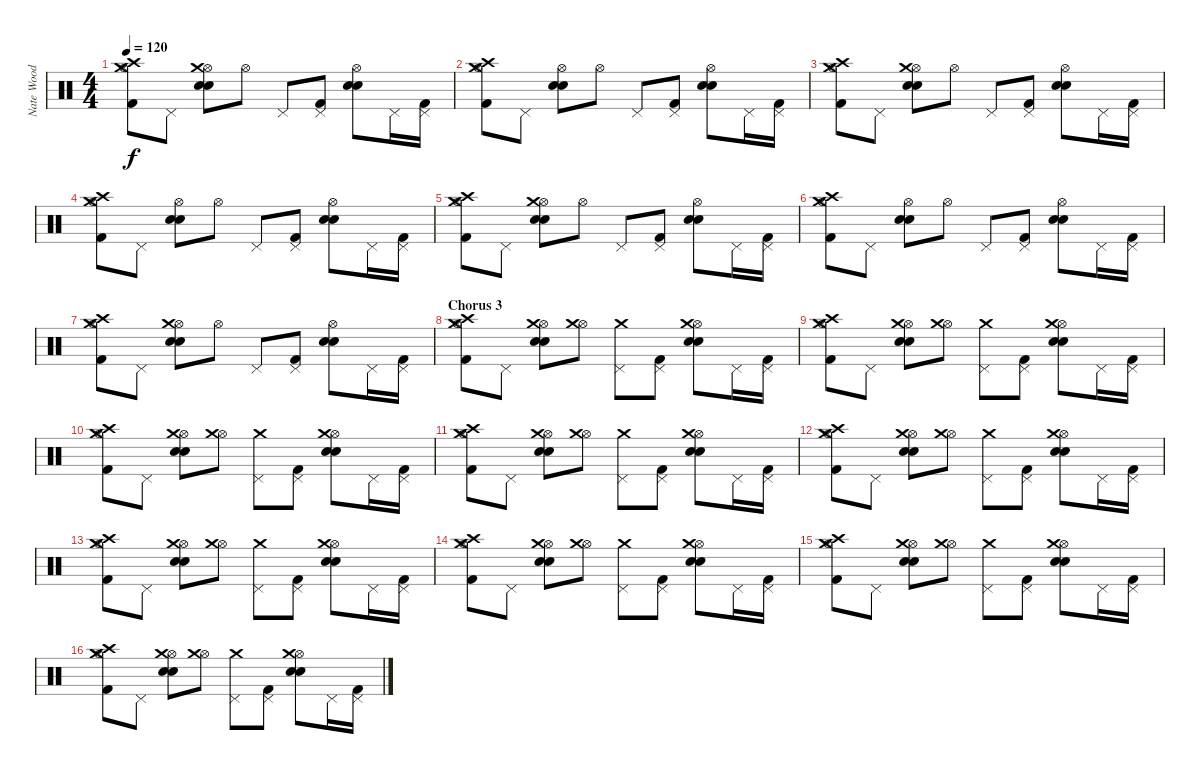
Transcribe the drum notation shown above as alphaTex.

\track ("Nate Wood  (Drums)" "Nate Wood ") {instrument percussion}
\staff {score}
\articulation defaults
\ts (4 4)
\tempo 120
\clef neutral
\ks c
("Kick (hit) 2" "Hi-Hat (open)" "Crash medium (hit)" "Crash high (hit)").8{dy f} "Pedal Hi-Hat (hit)".8 ("Snare (hit) 2" "Electric Snare (hit)" "Hi-Hat (open)" "Crash medium (hit)").8 "Hi-Hat (open)".8 "Pedal Hi-Hat (hit)".8 ("Kick (hit) 2" "Pedal Hi-Hat (hit)").8 ("Snare (hit) 2" "Electric Snare (hit)" "Hi-Hat (open)").8 "Pedal Hi-Hat (hit)".16 ("Kick (hit) 2" "Pedal Hi-Hat (hit)").16 |
("Kick (hit) 2" "Hi-Hat (open)" "Crash medium (hit)" "Crash high (hit)").8 "Pedal Hi-Hat (hit)".8 ("Snare (hit) 2" "Electric Snare (hit)" "Hi-Hat (open)").8 "Hi-Hat (open)".8 "Pedal Hi-Hat (hit)".8 ("Kick (hit) 2" "Pedal Hi-Hat (hit)").8 ("Snare (hit) 2" "Electric Snare (hit)" "Hi-Hat (open)").8 "Pedal Hi-Hat (hit)".16 ("Kick (hit) 2" "Pedal Hi-Hat (hit)").16 |
("Kick (hit) 2" "Hi-Hat (open)" "Crash medium (hit)" "Crash high (hit)").8 "Pedal Hi-Hat (hit)".8 ("Snare (hit) 2" "Electric Snare (hit)" "Hi-Hat (open)" "Crash medium (hit)").8 "Hi-Hat (open)".8 "Pedal Hi-Hat (hit)".8 ("Kick (hit) 2" "Pedal Hi-Hat (hit)").8 ("Snare (hit) 2" "Electric Snare (hit)" "Hi-Hat (open)").8 "Pedal Hi-Hat (hit)".16 ("Kick (hit) 2" "Pedal Hi-Hat (hit)").16 |
("Kick (hit) 2" "Hi-Hat (open)" "Crash medium (hit)" "Crash high (hit)").8 "Pedal Hi-Hat (hit)".8 ("Snare (hit) 2" "Electric Snare (hit)" "Hi-Hat (open)").8 "Hi-Hat (open)".8 "Pedal Hi-Hat (hit)".8 ("Kick (hit) 2" "Pedal Hi-Hat (hit)").8 ("Snare (hit) 2" "Electric Snare (hit)" "Hi-Hat (open)").8 "Pedal Hi-Hat (hit)".16 ("Kick (hit) 2" "Pedal Hi-Hat (hit)").16 |
("Kick (hit) 2" "Hi-Hat (open)" "Crash medium (hit)" "Crash high (hit)").8 "Pedal Hi-Hat (hit)".8 ("Snare (hit) 2" "Electric Snare (hit)" "Hi-Hat (open)" "Crash medium (hit)").8 "Hi-Hat (open)".8 "Pedal Hi-Hat (hit)".8 ("Kick (hit) 2" "Pedal Hi-Hat (hit)").8 ("Snare (hit) 2" "Electric Snare (hit)" "Hi-Hat (open)").8 "Pedal Hi-Hat (hit)".16 ("Kick (hit) 2" "Pedal Hi-Hat (hit)").16 |
("Kick (hit) 2" "Hi-Hat (open)" "Crash medium (hit)" "Crash high (hit)").8 "Pedal Hi-Hat (hit)".8 ("Snare (hit) 2" "Electric Snare (hit)" "Hi-Hat (open)").8 "Hi-Hat (open)".8 "Pedal Hi-Hat (hit)".8 ("Kick (hit) 2" "Pedal Hi-Hat (hit)").8 ("Snare (hit) 2" "Electric Snare (hit)" "Hi-Hat (open)").8 "Pedal Hi-Hat (hit)".16 ("Kick (hit) 2" "Pedal Hi-Hat (hit)").16 |
("Kick (hit) 2" "Hi-Hat (open)" "Crash medium (hit)" "Crash high (hit)").8 "Pedal Hi-Hat (hit)".8 ("Snare (hit) 2" "Electric Snare (hit)" "Hi-Hat (open)" "Crash medium (hit)").8 "Hi-Hat (open)".8 "Pedal Hi-Hat (hit)".8 ("Kick (hit) 2" "Pedal Hi-Hat (hit)").8 ("Snare (hit) 2" "Electric Snare (hit)" "Hi-Hat (open)").8 "Pedal Hi-Hat (hit)".16 ("Kick (hit) 2" "Pedal Hi-Hat (hit)").16 |
\section ("" "Chorus 3")
("Kick (hit) 2" "Hi-Hat (open)" "Crash medium (hit)" "Crash high (hit)").8 "Pedal Hi-Hat (hit)".8 ("Snare (hit) 2" "Electric Snare (hit)" "Hi-Hat (open)" "Crash medium (hit)").8 ("Hi-Hat (open)" "Crash medium (hit)").8 ("Pedal Hi-Hat (hit)" "Crash medium (hit)").8 ("Kick (hit) 2" "Pedal Hi-Hat (hit)").8 ("Snare (hit) 2" "Electric Snare (hit)" "Hi-Hat (open)" "Crash medium (hit)").8 "Pedal Hi-Hat (hit)".16 ("Kick (hit) 2" "Pedal Hi-Hat (hit)").16 |
("Kick (hit) 2" "Hi-Hat (open)" "Crash medium (hit)" "Crash high (hit)").8 "Pedal Hi-Hat (hit)".8 ("Snare (hit) 2" "Electric Snare (hit)" "Hi-Hat (open)" "Crash medium (hit)").8 ("Hi-Hat (open)" "Crash medium (hit)").8 ("Pedal Hi-Hat (hit)" "Crash medium (hit)").8 ("Kick (hit) 2" "Pedal Hi-Hat (hit)").8 ("Snare (hit) 2" "Electric Snare (hit)" "Hi-Hat (open)" "Crash medium (hit)").8 "Pedal Hi-Hat (hit)".16 ("Kick (hit) 2" "Pedal Hi-Hat (hit)").16 |
("Kick (hit) 2" "Hi-Hat (open)" "Crash medium (hit)" "Crash high (hit)").8 "Pedal Hi-Hat (hit)".8 ("Snare (hit) 2" "Electric Snare (hit)" "Hi-Hat (open)" "Crash medium (hit)").8 ("Hi-Hat (open)" "Crash medium (hit)").8 ("Pedal Hi-Hat (hit)" "Crash medium (hit)").8 ("Kick (hit) 2" "Pedal Hi-Hat (hit)").8 ("Snare (hit) 2" "Electric Snare (hit)" "Hi-Hat (open)" "Crash medium (hit)").8 "Pedal Hi-Hat (hit)".16 ("Kick (hit) 2" "Pedal Hi-Hat (hit)").16 |
("Kick (hit) 2" "Hi-Hat (open)" "Crash medium (hit)" "Crash high (hit)").8 "Pedal Hi-Hat (hit)".8 ("Snare (hit) 2" "Electric Snare (hit)" "Hi-Hat (open)" "Crash medium (hit)").8 ("Hi-Hat (open)" "Crash medium (hit)").8 ("Pedal Hi-Hat (hit)" "Crash medium (hit)").8 ("Kick (hit) 2" "Pedal Hi-Hat (hit)").8 ("Snare (hit) 2" "Electric Snare (hit)" "Hi-Hat (open)" "Crash medium (hit)").8 "Pedal Hi-Hat (hit)".16 ("Kick (hit) 2" "Pedal Hi-Hat (hit)").16 |
("Kick (hit) 2" "Hi-Hat (open)" "Crash medium (hit)" "Crash high (hit)").8 "Pedal Hi-Hat (hit)".8 ("Snare (hit) 2" "Electric Snare (hit)" "Hi-Hat (open)" "Crash medium (hit)").8 ("Hi-Hat (open)" "Crash medium (hit)").8 ("Pedal Hi-Hat (hit)" "Crash medium (hit)").8 ("Kick (hit) 2" "Pedal Hi-Hat (hit)").8 ("Snare (hit) 2" "Electric Snare (hit)" "Hi-Hat (open)" "Crash medium (hit)").8 "Pedal Hi-Hat (hit)".16 ("Kick (hit) 2" "Pedal Hi-Hat (hit)").16 |
("Kick (hit) 2" "Hi-Hat (open)" "Crash medium (hit)" "Crash high (hit)").8 "Pedal Hi-Hat (hit)".8 ("Snare (hit) 2" "Electric Snare (hit)" "Hi-Hat (open)" "Crash medium (hit)").8 ("Hi-Hat (open)" "Crash medium (hit)").8 ("Pedal Hi-Hat (hit)" "Crash medium (hit)").8 ("Kick (hit) 2" "Pedal Hi-Hat (hit)").8 ("Snare (hit) 2" "Electric Snare (hit)" "Hi-Hat (open)" "Crash medium (hit)").8 "Pedal Hi-Hat (hit)".16 ("Kick (hit) 2" "Pedal Hi-Hat (hit)").16 |
("Kick (hit) 2" "Hi-Hat (open)" "Crash medium (hit)" "Crash high (hit)").8 "Pedal Hi-Hat (hit)".8 ("Snare (hit) 2" "Electric Snare (hit)" "Hi-Hat (open)" "Crash medium (hit)").8 ("Hi-Hat (open)" "Crash medium (hit)").8 ("Pedal Hi-Hat (hit)" "Crash medium (hit)").8 ("Kick (hit) 2" "Pedal Hi-Hat (hit)").8 ("Snare (hit) 2" "Electric Snare (hit)" "Hi-Hat (open)" "Crash medium (hit)").8 "Pedal Hi-Hat (hit)".16 ("Kick (hit) 2" "Pedal Hi-Hat (hit)").16 |
("Kick (hit) 2" "Hi-Hat (open)" "Crash medium (hit)" "Crash high (hit)").8 "Pedal Hi-Hat (hit)".8 ("Snare (hit) 2" "Electric Snare (hit)" "Hi-Hat (open)" "Crash medium (hit)").8 ("Hi-Hat (open)" "Crash medium (hit)").8 ("Pedal Hi-Hat (hit)" "Crash medium (hit)").8 ("Kick (hit) 2" "Pedal Hi-Hat (hit)").8 ("Snare (hit) 2" "Electric Snare (hit)" "Hi-Hat (open)" "Crash medium (hit)").8 "Pedal Hi-Hat (hit)".16 ("Kick (hit) 2" "Pedal Hi-Hat (hit)").16 |
("Kick (hit) 2" "Hi-Hat (open)" "Crash medium (hit)" "Crash high (hit)").8 "Pedal Hi-Hat (hit)".8 ("Snare (hit) 2" "Electric Snare (hit)" "Hi-Hat (open)" "Crash medium (hit)").8 ("Hi-Hat (open)" "Crash medium (hit)").8 ("Pedal Hi-Hat (hit)" "Crash medium (hit)").8 ("Kick (hit) 2" "Pedal Hi-Hat (hit)").8 ("Snare (hit) 2" "Electric Snare (hit)" "Hi-Hat (open)" "Crash medium (hit)").8 "Pedal Hi-Hat (hit)".16 ("Kick (hit) 2" "Pedal Hi-Hat (hit)").16
